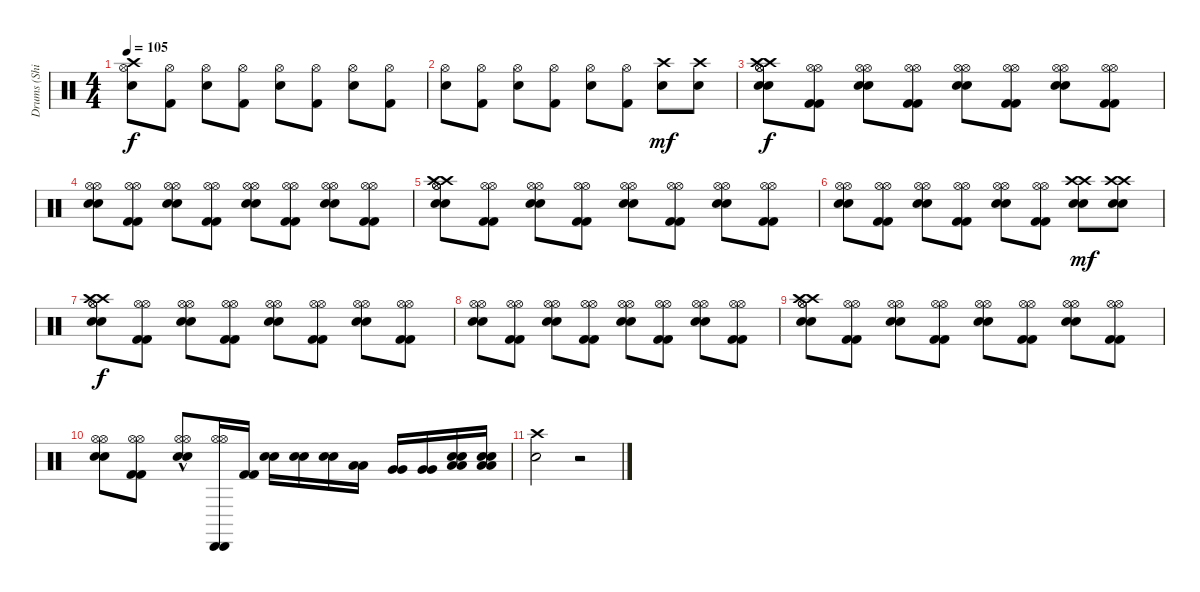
\track ("Drums (Shinya)" "Drums (Shi") {instrument percussion}
\staff {score}
\articulation defaults
\ts (4 4)
\tempo 105
\clef neutral
\ks c
("Crash high (hit)" "Hi-Hat (open)" "Electric Snare (hit)").8{dy f} ("Kick (hit) 2" "Hi-Hat (open)").8 ("Electric Snare (hit)" "Hi-Hat (open)").8 ("Kick (hit) 2" "Hi-Hat (open)").8 ("Hi-Hat (open)" "Electric Snare (hit)").8 ("Hi-Hat (open)" "Kick (hit) 2").8 ("Electric Snare (hit)" "Hi-Hat (open)").8 ("Hi-Hat (open)" "Kick (hit) 2").8 |
("Hi-Hat (open)" "Electric Snare (hit)").8 ("Kick (hit) 2" "Hi-Hat (open)").8 ("Electric Snare (hit)" "Hi-Hat (open)").8 ("Kick (hit) 2" "Hi-Hat (open)").8 ("Hi-Hat (open)" "Electric Snare (hit)").8 ("Hi-Hat (open)" "Kick (hit) 2").8 ("Electric Snare (hit)" "Crash high (hit)").8{dy mf} ("Crash high (hit)" "Electric Snare (hit)").8 |
("Hi-Hat (open)" "Crash high (hit)" "Electric Snare (hit)" "Hi-Hat (open)" "Crash high (hit)" "Electric Snare (hit)").8{dy f} ("Hi-Hat (open)" "Kick (hit) 2" "Hi-Hat (open)" "Kick (hit) 2").8 ("Hi-Hat (open)" "Electric Snare (hit)" "Hi-Hat (open)" "Electric Snare (hit)").8 ("Hi-Hat (open)" "Kick (hit) 2" "Hi-Hat (open)" "Kick (hit) 2").8 ("Hi-Hat (open)" "Electric Snare (hit)" "Hi-Hat (open)" "Electric Snare (hit)").8 ("Hi-Hat (open)" "Kick (hit) 2" "Hi-Hat (open)" "Kick (hit) 2").8 ("Hi-Hat (open)" "Electric Snare (hit)" "Hi-Hat (open)" "Electric Snare (hit)").8 ("Hi-Hat (open)" "Kick (hit) 2" "Hi-Hat (open)" "Kick (hit) 2").8 |
("Hi-Hat (open)" "Electric Snare (hit)" "Hi-Hat (open)" "Electric Snare (hit)").8 ("Hi-Hat (open)" "Kick (hit) 2" "Hi-Hat (open)" "Kick (hit) 2").8 ("Hi-Hat (open)" "Electric Snare (hit)" "Hi-Hat (open)" "Electric Snare (hit)").8 ("Hi-Hat (open)" "Kick (hit) 2" "Hi-Hat (open)" "Kick (hit) 2").8 ("Hi-Hat (open)" "Electric Snare (hit)" "Hi-Hat (open)" "Electric Snare (hit)").8 ("Hi-Hat (open)" "Kick (hit) 2" "Hi-Hat (open)" "Kick (hit) 2").8 ("Hi-Hat (open)" "Electric Snare (hit)" "Hi-Hat (open)" "Electric Snare (hit)").8 ("Hi-Hat (open)" "Kick (hit) 2" "Hi-Hat (open)" "Kick (hit) 2").8 |
("Hi-Hat (open)" "Crash high (hit)" "Electric Snare (hit)" "Hi-Hat (open)" "Crash high (hit)" "Electric Snare (hit)").8 ("Hi-Hat (open)" "Kick (hit) 2" "Hi-Hat (open)" "Kick (hit) 2").8 ("Hi-Hat (open)" "Electric Snare (hit)" "Hi-Hat (open)" "Electric Snare (hit)").8 ("Hi-Hat (open)" "Kick (hit) 2" "Hi-Hat (open)" "Kick (hit) 2").8 ("Hi-Hat (open)" "Electric Snare (hit)" "Hi-Hat (open)" "Electric Snare (hit)").8 ("Hi-Hat (open)" "Kick (hit) 2" "Hi-Hat (open)" "Kick (hit) 2").8 ("Hi-Hat (open)" "Electric Snare (hit)" "Hi-Hat (open)" "Electric Snare (hit)").8 ("Hi-Hat (open)" "Kick (hit) 2" "Hi-Hat (open)" "Kick (hit) 2").8 |
("Hi-Hat (open)" "Electric Snare (hit)" "Hi-Hat (open)" "Electric Snare (hit)").8 ("Hi-Hat (open)" "Kick (hit) 2" "Hi-Hat (open)" "Kick (hit) 2").8 ("Hi-Hat (open)" "Electric Snare (hit)" "Hi-Hat (open)" "Electric Snare (hit)").8 ("Hi-Hat (open)" "Kick (hit) 2" "Hi-Hat (open)" "Kick (hit) 2").8 ("Hi-Hat (open)" "Electric Snare (hit)" "Hi-Hat (open)" "Electric Snare (hit)").8 ("Hi-Hat (open)" "Kick (hit) 2" "Hi-Hat (open)" "Kick (hit) 2").8 ("Electric Snare (hit)" "Crash high (hit)" "Electric Snare (hit)" "Crash high (hit)").8{dy mf} ("Electric Snare (hit)" "Crash high (hit)" "Electric Snare (hit)" "Crash high (hit)").8 |
("Hi-Hat (open)" "Electric Snare (hit)" "Crash high (hit)" "Hi-Hat (open)" "Electric Snare (hit)" "Crash high (hit)").8{dy f} ("Kick (hit) 2" "Hi-Hat (open)" "Kick (hit) 2" "Hi-Hat (open)").8 ("Electric Snare (hit)" "Hi-Hat (open)" "Electric Snare (hit)" "Hi-Hat (open)").8 ("Kick (hit) 2" "Hi-Hat (open)" "Kick (hit) 2" "Hi-Hat (open)").8 ("Electric Snare (hit)" "Hi-Hat (open)" "Electric Snare (hit)" "Hi-Hat (open)").8 ("Hi-Hat (open)" "Kick (hit) 2" "Hi-Hat (open)" "Kick (hit) 2").8 ("Hi-Hat (open)" "Electric Snare (hit)" "Hi-Hat (open)" "Electric Snare (hit)").8 ("Kick (hit) 2" "Hi-Hat (open)" "Kick (hit) 2" "Hi-Hat (open)").8 |
("Electric Snare (hit)" "Hi-Hat (open)" "Electric Snare (hit)" "Hi-Hat (open)").8 ("Kick (hit) 2" "Hi-Hat (open)" "Kick (hit) 2" "Hi-Hat (open)").8 ("Hi-Hat (open)" "Electric Snare (hit)" "Hi-Hat (open)" "Electric Snare (hit)").8 ("Hi-Hat (open)" "Kick (hit) 2" "Hi-Hat (open)" "Kick (hit) 2").8 ("Electric Snare (hit)" "Hi-Hat (open)" "Electric Snare (hit)" "Hi-Hat (open)").8 ("Hi-Hat (open)" "Kick (hit) 2" "Hi-Hat (open)" "Kick (hit) 2").8 ("Hi-Hat (open)" "Electric Snare (hit)" "Hi-Hat (open)" "Electric Snare (hit)").8 ("Kick (hit) 2" "Hi-Hat (open)" "Kick (hit) 2" "Hi-Hat (open)").8 |
("Crash high (hit)" "Hi-Hat (open)" "Electric Snare (hit)" "Crash high (hit)" "Hi-Hat (open)" "Electric Snare (hit)").8 ("Kick (hit) 2" "Hi-Hat (open)" "Kick (hit) 2" "Hi-Hat (open)").8 ("Electric Snare (hit)" "Hi-Hat (open)" "Electric Snare (hit)" "Hi-Hat (open)").8 ("Kick (hit) 2" "Hi-Hat (open)" "Kick (hit) 2" "Hi-Hat (open)").8 ("Hi-Hat (open)" "Electric Snare (hit)" "Hi-Hat (open)" "Electric Snare (hit)").8 ("Hi-Hat (open)" "Kick (hit) 2" "Hi-Hat (open)" "Kick (hit) 2").8 ("Electric Snare (hit)" "Hi-Hat (open)" "Electric Snare (hit)" "Hi-Hat (open)").8 ("Hi-Hat (open)" "Kick (hit) 2" "Hi-Hat (open)" "Kick (hit) 2").8 |
("Hi-Hat (open)" "Electric Snare (hit)" "Hi-Hat (open)" "Electric Snare (hit)").8 ("Kick (hit) 2" "Hi-Hat (open)" "Kick (hit) 2" "Hi-Hat (open)").8 ("Electric Snare (hit)"{hac} "Hi-Hat (open)" "Electric Snare (hit)"{hac} "Hi-Hat (open)").8 ("Hi-Hat (open)" "Cabasa (hit)" "Hi-Hat (open)" "Cabasa (hit)").16 ("Kick (hit) 2" "Kick (hit) 2").16 ("Electric Snare (hit)" "Electric Snare (hit)").16 ("Electric Snare (hit)" "Electric Snare (hit)").16 ("Electric Snare (hit)" "Electric Snare (hit)").16 ("Low Tom (hit)" "Low Tom (hit)").16 ("Very Low Tom (hit)" "Very Low Tom (hit)").16 ("Very Low Tom (hit)" "Very Low Tom (hit)").16 ("Low Floor Tom (hit)" "Snare (hit) 2" "Low Floor Tom (hit)" "Snare (hit) 2").16 ("Snare (hit) 2" "Low Floor Tom (hit)" "Snare (hit) 2" "Low Floor Tom (hit)").16 |
("Crash high (hit)" "Electric Snare (hit)").2 r.2
